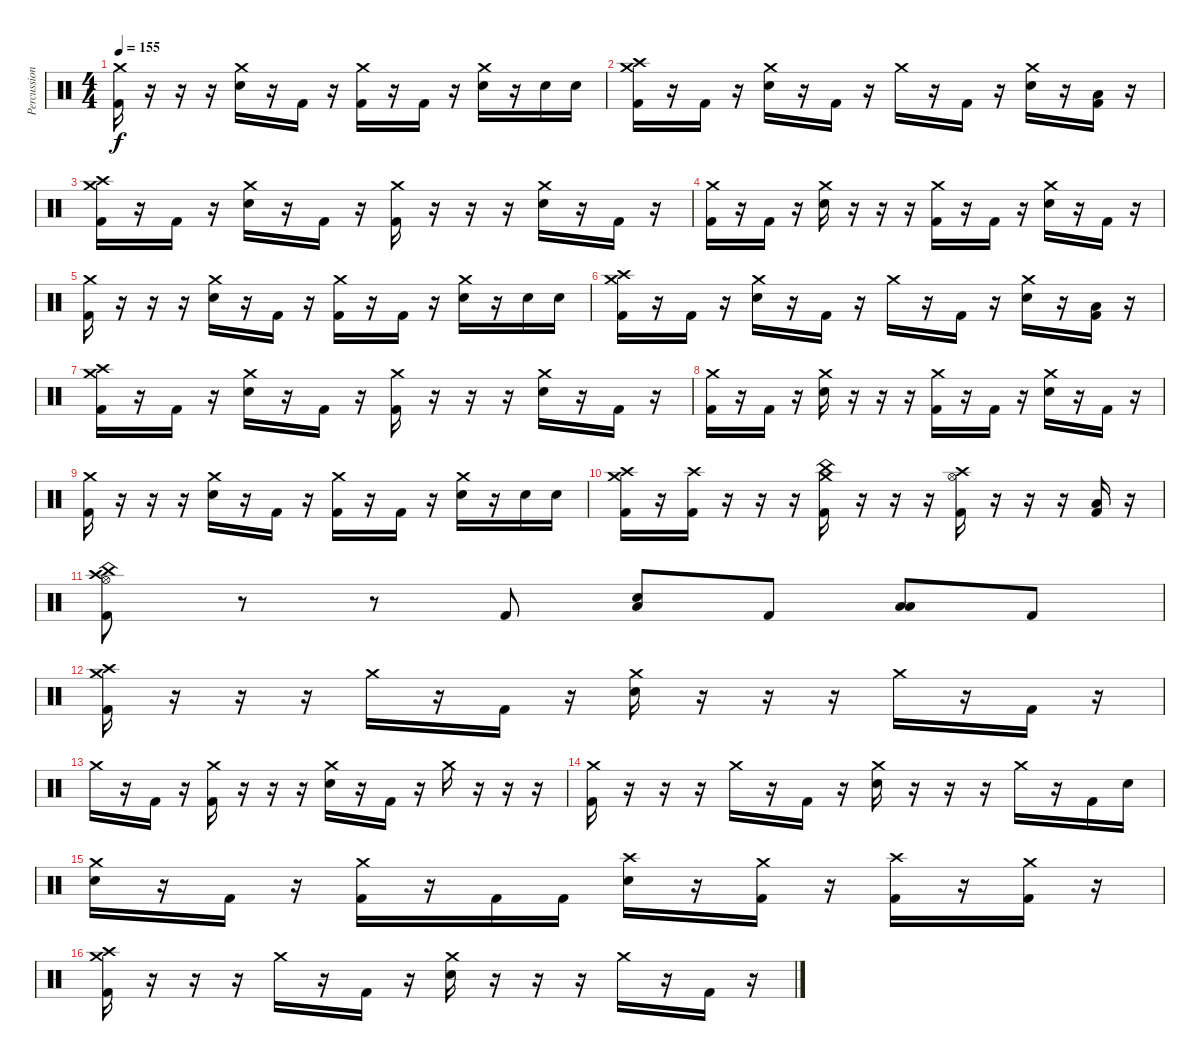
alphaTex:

\track ("Percussion" "Percussion") {instrument percussion}
\staff {score}
\articulation defaults
\ts (4 4)
\tempo 155
\clef neutral
\ks c
("Crash medium (hit)" "Kick (hit) 2").16{dy f} r.16 r.16 r.16 ("Crash medium (hit)" "Snare (hit) 2").16 r.16 "Kick (hit) 2".16 r.16 ("Crash medium (hit)" "Kick (hit) 2").16 r.16 "Kick (hit) 2".16 r.16 ("Crash medium (hit)" "Snare (hit) 2").16 r.16 "Snare (hit) 2".16 "Snare (hit) 2".16 |
("Crash high (hit)" "Crash medium (hit)" "Kick (hit) 2").16 r.16 "Kick (hit) 2".16 r.16 ("Crash medium (hit)" "Snare (hit) 2").16 r.16 "Kick (hit) 2".16 r.16 "Crash medium (hit)".16 r.16 "Kick (hit) 2".16 r.16 ("Crash medium (hit)" "Snare (hit) 2").16 r.16 ("Low Floor Tom (hit)" "Kick (hit) 2").16 r.16 |
("Crash high (hit)" "Crash medium (hit)" "Kick (hit) 2").16 r.16 "Kick (hit) 2".16 r.16 ("Crash medium (hit)" "Snare (hit) 2").16 r.16 "Kick (hit) 2".16 r.16 ("Crash medium (hit)" "Kick (hit) 2").16 r.16 r.16 r.16 ("Crash medium (hit)" "Snare (hit) 2").16 r.16 "Kick (hit) 2".16 r.16 |
("Crash medium (hit)" "Kick (hit) 2").16 r.16 "Kick (hit) 2".16 r.16 ("Crash medium (hit)" "Snare (hit) 2").16 r.16 r.16 r.16 ("Crash medium (hit)" "Kick (hit) 2").16 r.16 "Kick (hit) 2".16 r.16 ("Crash medium (hit)" "Snare (hit) 2").16 r.16 "Kick (hit) 2".16 r.16 |
("Crash medium (hit)" "Kick (hit) 2").16 r.16 r.16 r.16 ("Crash medium (hit)" "Snare (hit) 2").16 r.16 "Kick (hit) 2".16 r.16 ("Crash medium (hit)" "Kick (hit) 2").16 r.16 "Kick (hit) 2".16 r.16 ("Crash medium (hit)" "Snare (hit) 2").16 r.16 "Snare (hit) 2".16 "Snare (hit) 2".16 |
("Crash high (hit)" "Crash medium (hit)" "Kick (hit) 2").16 r.16 "Kick (hit) 2".16 r.16 ("Crash medium (hit)" "Snare (hit) 2").16 r.16 "Kick (hit) 2".16 r.16 "Crash medium (hit)".16 r.16 "Kick (hit) 2".16 r.16 ("Crash medium (hit)" "Snare (hit) 2").16 r.16 ("Low Floor Tom (hit)" "Kick (hit) 2").16 r.16 |
("Crash high (hit)" "Crash medium (hit)" "Kick (hit) 2").16 r.16 "Kick (hit) 2".16 r.16 ("Crash medium (hit)" "Snare (hit) 2").16 r.16 "Kick (hit) 2".16 r.16 ("Crash medium (hit)" "Kick (hit) 2").16 r.16 r.16 r.16 ("Crash medium (hit)" "Snare (hit) 2").16 r.16 "Kick (hit) 2".16 r.16 |
("Crash medium (hit)" "Kick (hit) 2").16 r.16 "Kick (hit) 2".16 r.16 ("Crash medium (hit)" "Snare (hit) 2").16 r.16 r.16 r.16 ("Crash medium (hit)" "Kick (hit) 2").16 r.16 "Kick (hit) 2".16 r.16 ("Crash medium (hit)" "Snare (hit) 2").16 r.16 "Kick (hit) 2".16 r.16 |
("Crash medium (hit)" "Kick (hit) 2").16 r.16 r.16 r.16 ("Crash medium (hit)" "Snare (hit) 2").16 r.16 "Kick (hit) 2".16 r.16 ("Crash medium (hit)" "Kick (hit) 2").16 r.16 "Kick (hit) 2".16 r.16 ("Crash medium (hit)" "Snare (hit) 2").16 r.16 "Snare (hit) 2".16 "Snare (hit) 2".16 |
("Crash high (hit)" "Crash medium (hit)" "Kick (hit) 2").16 r.16 ("Crash high (hit)" "Kick (hit) 2").16 r.16 r.16 r.16 ("Crash medium (hit)" "China (hit)" "Kick (hit) 2").16 r.16 r.16 r.16 ("Crash high (hit)" "Hi-Hat (open)" "Kick (hit) 2").16 r.16 r.16 r.16 ("Low Floor Tom (hit)" "Kick (hit) 2").16 r.16 |
("Crash high (hit)" "China (hit)" "Hi-Hat (open)" "Kick (hit) 2").8 r.8 r.8 "Kick (hit) 2".8 ("Low Floor Tom (hit)" "Snare (hit) 2").8 "Kick (hit) 2".8 ("Low Floor Tom (hit)" "Low Tom (hit)").8 "Kick (hit) 2".8 |
("Crash high (hit)" "Crash medium (hit)" "Kick (hit) 2").16 r.16 r.16 r.16 "Crash medium (hit)".16 r.16 "Kick (hit) 2".16 r.16 ("Crash medium (hit)" "Snare (hit) 2").16 r.16 r.16 r.16 "Crash medium (hit)".16 r.16 "Kick (hit) 2".16 r.16 |
"Crash medium (hit)".16 r.16 "Kick (hit) 2".16 r.16 ("Crash medium (hit)" "Kick (hit) 2").16 r.16 r.16 r.16 ("Crash medium (hit)" "Snare (hit) 2").16 r.16 "Kick (hit) 2".16 r.16 "Crash medium (hit)".16 r.16 r.16 r.16 |
("Crash medium (hit)" "Kick (hit) 2").16 r.16 r.16 r.16 "Crash medium (hit)".16 r.16 "Kick (hit) 2".16 r.16 ("Crash medium (hit)" "Snare (hit) 2").16 r.16 r.16 r.16 "Crash medium (hit)".16 r.16 "Kick (hit) 2".16 "Snare (hit) 2".16 |
("Crash medium (hit)" "Snare (hit) 2").16 r.16 "Kick (hit) 2".16 r.16 ("Crash medium (hit)" "Kick (hit) 2").16 r.16 "Kick (hit) 2".16 "Kick (hit) 2".16 ("Crash high (hit)" "Snare (hit) 2").16 r.16 ("Crash medium (hit)" "Kick (hit) 2").16 r.16 ("Crash high (hit)" "Kick (hit) 2").16 r.16 ("Crash medium (hit)" "Kick (hit) 2").16 r.16 |
("Crash high (hit)" "Crash medium (hit)" "Kick (hit) 2").16 r.16 r.16 r.16 "Crash medium (hit)".16 r.16 "Kick (hit) 2".16 r.16 ("Crash medium (hit)" "Snare (hit) 2").16 r.16 r.16 r.16 "Crash medium (hit)".16 r.16 "Kick (hit) 2".16 r.16
